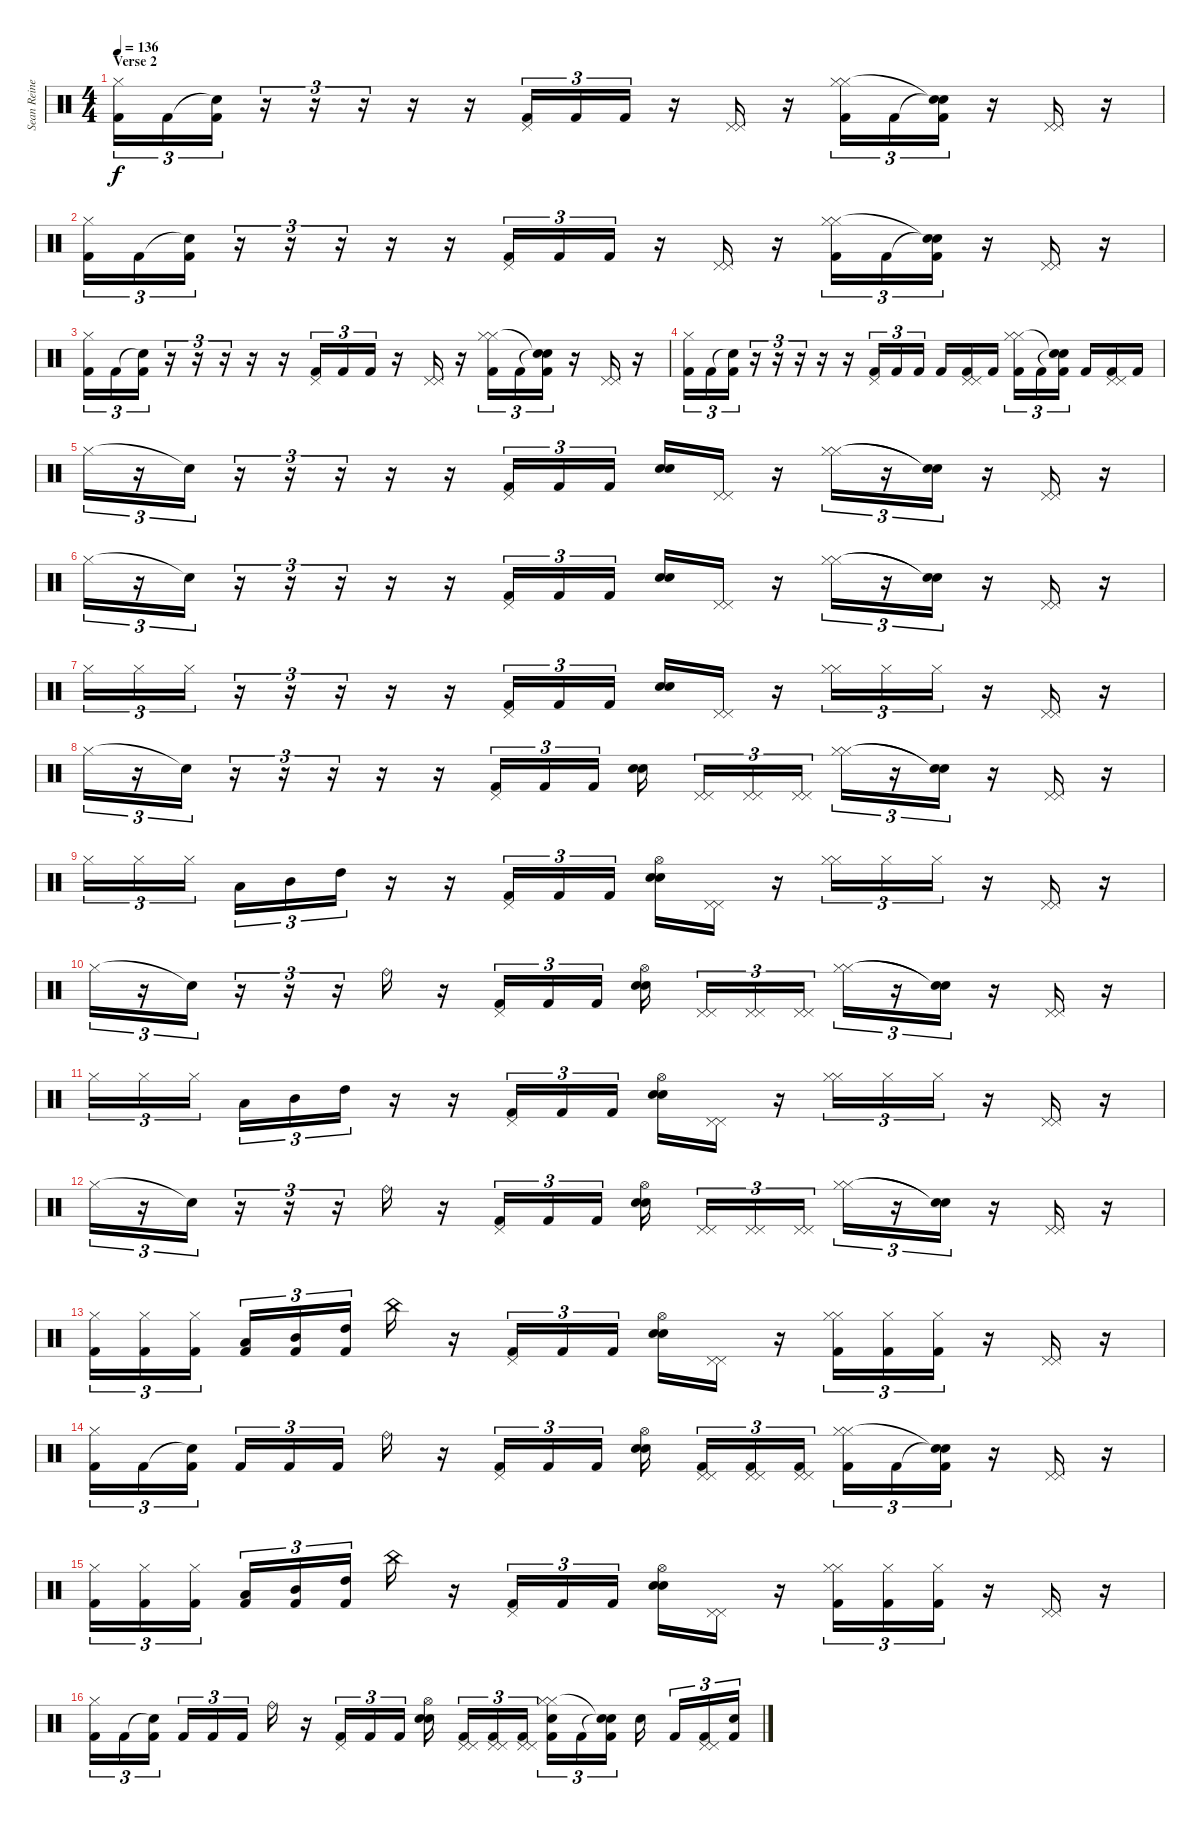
\track ("Sean Reinert" "Sean Reine") {instrument percussion}
\staff {score}
\articulation defaults
\ts (4 4)
\section ("" "Verse 2")
\tempo 136
\clef neutral
\ks c
("Hi-Hat (closed)" "Kick (hit) 2").16{tu (3 2) dy f} "Kick (hit) 2".16{tu (3 2)} ("Snare (hit)"{t} "Kick (hit) 2").16{tu (3 2)} r.16{tu (3 2)} r.16{tu (3 2)} r.16{tu (3 2)} r.16 r.16 ("Pedal Hi-Hat (hit)" "Kick (hit) 2").16{tu (3 2)} "Kick (hit) 2".16{tu (3 2)} "Kick (hit) 2".16{tu (3 2)} r.16 ("Pedal Hi-Hat (hit)" "Pedal Hi-Hat (hit)").16 r.16 ("Hi-Hat (closed)" "Hi-Hat (closed)" "Kick (hit) 2").16{tu (3 2)} "Kick (hit) 2".16{tu (3 2)} ("Snare (hit)"{t} "Snare (hit)"{t} "Kick (hit) 2").16{tu (3 2)} r.16 ("Pedal Hi-Hat (hit)" "Pedal Hi-Hat (hit)").16 r.16 |
("Hi-Hat (closed)" "Kick (hit) 2").16{tu (3 2)} "Kick (hit) 2".16{tu (3 2)} ("Snare (hit)"{t} "Kick (hit) 2").16{tu (3 2)} r.16{tu (3 2)} r.16{tu (3 2)} r.16{tu (3 2)} r.16 r.16 ("Pedal Hi-Hat (hit)" "Kick (hit) 2").16{tu (3 2)} "Kick (hit) 2".16{tu (3 2)} "Kick (hit) 2".16{tu (3 2)} r.16 ("Pedal Hi-Hat (hit)" "Pedal Hi-Hat (hit)").16 r.16 ("Hi-Hat (closed)" "Hi-Hat (closed)" "Kick (hit) 2").16{tu (3 2)} "Kick (hit) 2".16{tu (3 2)} ("Snare (hit)"{t} "Snare (hit)"{t} "Kick (hit) 2").16{tu (3 2)} r.16 ("Pedal Hi-Hat (hit)" "Pedal Hi-Hat (hit)").16 r.16 |
("Hi-Hat (closed)" "Kick (hit) 2").16{tu (3 2)} "Kick (hit) 2".16{tu (3 2)} ("Snare (hit)"{t} "Kick (hit) 2").16{tu (3 2)} r.16{tu (3 2)} r.16{tu (3 2)} r.16{tu (3 2)} r.16 r.16 ("Pedal Hi-Hat (hit)" "Kick (hit) 2").16{tu (3 2)} "Kick (hit) 2".16{tu (3 2)} "Kick (hit) 2".16{tu (3 2)} r.16 ("Pedal Hi-Hat (hit)" "Pedal Hi-Hat (hit)").16 r.16 ("Hi-Hat (closed)" "Hi-Hat (closed)" "Kick (hit) 2").16{tu (3 2)} "Kick (hit) 2".16{tu (3 2)} ("Snare (hit)"{t} "Snare (hit)"{t} "Kick (hit) 2").16{tu (3 2)} r.16 ("Pedal Hi-Hat (hit)" "Pedal Hi-Hat (hit)").16 r.16 |
("Hi-Hat (closed)" "Kick (hit) 2").16{tu (3 2)} "Kick (hit) 2".16{tu (3 2)} ("Snare (hit)"{t} "Kick (hit) 2").16{tu (3 2)} r.16{tu (3 2)} r.16{tu (3 2)} r.16{tu (3 2)} r.16 r.16 ("Pedal Hi-Hat (hit)" "Kick (hit) 2").16{tu (3 2)} "Kick (hit) 2".16{tu (3 2)} "Kick (hit) 2".16{tu (3 2)} "Kick (hit) 2".16 ("Pedal Hi-Hat (hit)" "Pedal Hi-Hat (hit)" "Kick (hit) 2").16 "Kick (hit) 2".16 ("Hi-Hat (closed)" "Hi-Hat (closed)" "Kick (hit) 2").16{tu (3 2)} "Kick (hit) 2".16{tu (3 2)} ("Snare (hit)"{t} "Snare (hit)"{t} "Kick (hit) 2").16{tu (3 2)} "Kick (hit) 2".16 ("Pedal Hi-Hat (hit)" "Pedal Hi-Hat (hit)" "Kick (hit) 2").16 "Kick (hit) 2".16 |
"Hi-Hat (closed)".16{tu (3 2)} r.16{tu (3 2)} "Snare (hit)"{t}.16{tu (3 2)} r.16{tu (3 2)} r.16{tu (3 2)} r.16{tu (3 2)} r.16 r.16 ("Pedal Hi-Hat (hit)" "Kick (hit) 2").16{tu (3 2)} "Kick (hit) 2".16{tu (3 2)} "Kick (hit) 2".16{tu (3 2)} ("Snare (hit) 2" "Electric Snare (hit)").16 ("Pedal Hi-Hat (hit)" "Pedal Hi-Hat (hit)").16 r.16 ("Hi-Hat (closed)" "Hi-Hat (closed)").16{tu (3 2)} r.16{tu (3 2)} ("Snare (hit)"{t} "Snare (hit)"{t}).16{tu (3 2)} r.16 ("Pedal Hi-Hat (hit)" "Pedal Hi-Hat (hit)").16 r.16 |
"Hi-Hat (closed)".16{tu (3 2)} r.16{tu (3 2)} "Snare (hit)"{t}.16{tu (3 2)} r.16{tu (3 2)} r.16{tu (3 2)} r.16{tu (3 2)} r.16 r.16 ("Pedal Hi-Hat (hit)" "Kick (hit) 2").16{tu (3 2)} "Kick (hit) 2".16{tu (3 2)} "Kick (hit) 2".16{tu (3 2)} ("Electric Snare (hit)" "Snare (hit) 2").16 ("Pedal Hi-Hat (hit)" "Pedal Hi-Hat (hit)").16 r.16 ("Hi-Hat (closed)" "Hi-Hat (closed)").16{tu (3 2)} r.16{tu (3 2)} ("Snare (hit)"{t} "Snare (hit)"{t}).16{tu (3 2)} r.16 ("Pedal Hi-Hat (hit)" "Pedal Hi-Hat (hit)").16 r.16 |
"Hi-Hat (closed)".16{tu (3 2)} "Hi-Hat (closed)".16{tu (3 2)} "Hi-Hat (closed)".16{tu (3 2)} r.16{tu (3 2)} r.16{tu (3 2)} r.16{tu (3 2)} r.16 r.16 ("Pedal Hi-Hat (hit)" "Kick (hit) 2").16{tu (3 2)} "Kick (hit) 2".16{tu (3 2)} "Kick (hit) 2".16{tu (3 2)} ("Electric Snare (hit)" "Snare (hit) 2").16 ("Pedal Hi-Hat (hit)" "Pedal Hi-Hat (hit)").16 r.16 ("Hi-Hat (closed)" "Hi-Hat (closed)").16{tu (3 2)} "Hi-Hat (closed)".16{tu (3 2)} "Hi-Hat (closed)".16{tu (3 2)} r.16 ("Pedal Hi-Hat (hit)" "Pedal Hi-Hat (hit)").16 r.16 |
"Hi-Hat (closed)".16{tu (3 2)} r.16{tu (3 2)} "Snare (hit)"{t}.16{tu (3 2)} r.16{tu (3 2)} r.16{tu (3 2)} r.16{tu (3 2)} r.16 r.16 ("Pedal Hi-Hat (hit)" "Kick (hit) 2").16{tu (3 2)} "Kick (hit) 2".16{tu (3 2)} "Kick (hit) 2".16{tu (3 2)} ("Electric Snare (hit)" "Snare (hit) 2").16 ("Pedal Hi-Hat (hit)" "Pedal Hi-Hat (hit)").16{tu (3 2)} ("Pedal Hi-Hat (hit)" "Pedal Hi-Hat (hit)").16{tu (3 2)} ("Pedal Hi-Hat (hit)" "Pedal Hi-Hat (hit)").16{tu (3 2)} ("Hi-Hat (closed)" "Hi-Hat (closed)").16{tu (3 2)} r.16{tu (3 2)} ("Snare (hit)"{t} "Snare (hit)"{t}).16{tu (3 2)} r.16 ("Pedal Hi-Hat (hit)" "Pedal Hi-Hat (hit)").16 r.16 |
"Hi-Hat (closed)".16{tu (3 2)} "Hi-Hat (closed)".16{tu (3 2)} "Hi-Hat (closed)".16{tu (3 2)} "Low Tom (hit)".16{tu (3 2)} "Mid Tom (hit)".16{tu (3 2)} "High Tom (hit)".16{tu (3 2)} r.16 r.16 ("Pedal Hi-Hat (hit)" "Kick (hit) 2").16{tu (3 2)} "Kick (hit) 2".16{tu (3 2)} "Kick (hit) 2".16{tu (3 2)} ("Hi-Hat (open)" "Electric Snare (hit)" "Snare (hit) 2").16 ("Pedal Hi-Hat (hit)" "Pedal Hi-Hat (hit)").16 r.16 ("Hi-Hat (closed)" "Hi-Hat (closed)").16{tu (3 2)} "Hi-Hat (closed)".16{tu (3 2)} "Hi-Hat (closed)".16{tu (3 2)} r.16 ("Pedal Hi-Hat (hit)" "Pedal Hi-Hat (hit)").16 r.16 |
"Hi-Hat (closed)".16{tu (3 2)} r.16{tu (3 2)} "Snare (hit)"{t}.16{tu (3 2)} r.16{tu (3 2)} r.16{tu (3 2)} r.16{tu (3 2)} "Ride (bell)".16 r.16 ("Pedal Hi-Hat (hit)" "Kick (hit) 2").16{tu (3 2)} "Kick (hit) 2".16{tu (3 2)} "Kick (hit) 2".16{tu (3 2)} ("Hi-Hat (open)" "Electric Snare (hit)" "Snare (hit) 2").16 ("Pedal Hi-Hat (hit)" "Pedal Hi-Hat (hit)").16{tu (3 2)} ("Pedal Hi-Hat (hit)" "Pedal Hi-Hat (hit)").16{tu (3 2)} ("Pedal Hi-Hat (hit)" "Pedal Hi-Hat (hit)").16{tu (3 2)} ("Hi-Hat (closed)" "Hi-Hat (closed)").16{tu (3 2)} r.16{tu (3 2)} ("Snare (hit)"{t} "Snare (hit)"{t}).16{tu (3 2)} r.16 ("Pedal Hi-Hat (hit)" "Pedal Hi-Hat (hit)").16 r.16 |
"Hi-Hat (closed)".16{tu (3 2)} "Hi-Hat (closed)".16{tu (3 2)} "Hi-Hat (closed)".16{tu (3 2)} "Low Tom (hit)".16{tu (3 2)} "Mid Tom (hit)".16{tu (3 2)} "High Tom (hit)".16{tu (3 2)} r.16 r.16 ("Pedal Hi-Hat (hit)" "Kick (hit) 2").16{tu (3 2)} "Kick (hit) 2".16{tu (3 2)} "Kick (hit) 2".16{tu (3 2)} ("Hi-Hat (open)" "Electric Snare (hit)" "Snare (hit) 2").16 ("Pedal Hi-Hat (hit)" "Pedal Hi-Hat (hit)").16 r.16 ("Hi-Hat (closed)" "Hi-Hat (closed)").16{tu (3 2)} "Hi-Hat (closed)".16{tu (3 2)} "Hi-Hat (closed)".16{tu (3 2)} r.16 ("Pedal Hi-Hat (hit)" "Pedal Hi-Hat (hit)").16 r.16 |
"Hi-Hat (closed)".16{tu (3 2)} r.16{tu (3 2)} "Snare (hit)"{t}.16{tu (3 2)} r.16{tu (3 2)} r.16{tu (3 2)} r.16{tu (3 2)} "Ride (bell)".16 r.16 ("Pedal Hi-Hat (hit)" "Kick (hit) 2").16{tu (3 2)} "Kick (hit) 2".16{tu (3 2)} "Kick (hit) 2".16{tu (3 2)} ("Hi-Hat (open)" "Electric Snare (hit)" "Snare (hit) 2").16 ("Pedal Hi-Hat (hit)" "Pedal Hi-Hat (hit)").16{tu (3 2)} ("Pedal Hi-Hat (hit)" "Pedal Hi-Hat (hit)").16{tu (3 2)} ("Pedal Hi-Hat (hit)" "Pedal Hi-Hat (hit)").16{tu (3 2)} ("Hi-Hat (closed)" "Hi-Hat (closed)").16{tu (3 2)} r.16{tu (3 2)} ("Snare (hit)"{t} "Snare (hit)"{t}).16{tu (3 2)} r.16 ("Pedal Hi-Hat (hit)" "Pedal Hi-Hat (hit)").16 r.16 |
("Hi-Hat (closed)" "Kick (hit) 2").16{tu (3 2)} ("Hi-Hat (closed)" "Kick (hit) 2").16{tu (3 2)} ("Hi-Hat (closed)" "Kick (hit) 2").16{tu (3 2)} ("Kick (hit) 2" "Low Tom (hit)").16{tu (3 2)} ("Kick (hit) 2" "Mid Tom (hit)").16{tu (3 2)} ("Kick (hit) 2" "High Tom (hit)").16{tu (3 2)} "China (hit)".16 r.16 ("Pedal Hi-Hat (hit)" "Kick (hit) 2").16{tu (3 2)} "Kick (hit) 2".16{tu (3 2)} "Kick (hit) 2".16{tu (3 2)} ("Hi-Hat (open)" "Electric Snare (hit)" "Snare (hit) 2").16 ("Pedal Hi-Hat (hit)" "Pedal Hi-Hat (hit)").16 r.16 ("Hi-Hat (closed)" "Hi-Hat (closed)" "Kick (hit) 2").16{tu (3 2)} ("Hi-Hat (closed)" "Kick (hit) 2").16{tu (3 2)} ("Hi-Hat (closed)" "Kick (hit) 2").16{tu (3 2)} r.16 ("Pedal Hi-Hat (hit)" "Pedal Hi-Hat (hit)").16 r.16 |
("Hi-Hat (closed)" "Kick (hit) 2").16{tu (3 2)} "Kick (hit) 2".16{tu (3 2)} ("Snare (hit)"{t} "Kick (hit) 2").16{tu (3 2)} "Kick (hit) 2".16{tu (3 2)} "Kick (hit) 2".16{tu (3 2)} "Kick (hit) 2".16{tu (3 2)} "Ride (bell)".16 r.16 ("Pedal Hi-Hat (hit)" "Kick (hit) 2").16{tu (3 2)} "Kick (hit) 2".16{tu (3 2)} "Kick (hit) 2".16{tu (3 2)} ("Hi-Hat (open)" "Electric Snare (hit)" "Snare (hit) 2").16 ("Pedal Hi-Hat (hit)" "Pedal Hi-Hat (hit)" "Kick (hit) 2").16{tu (3 2)} ("Pedal Hi-Hat (hit)" "Pedal Hi-Hat (hit)" "Kick (hit) 2").16{tu (3 2)} ("Pedal Hi-Hat (hit)" "Pedal Hi-Hat (hit)" "Kick (hit) 2").16{tu (3 2)} ("Hi-Hat (closed)" "Hi-Hat (closed)" "Kick (hit) 2").16{tu (3 2)} "Kick (hit) 2".16{tu (3 2)} ("Snare (hit)"{t} "Snare (hit)"{t} "Kick (hit) 2").16{tu (3 2)} r.16 ("Pedal Hi-Hat (hit)" "Pedal Hi-Hat (hit)").16 r.16 |
("Hi-Hat (closed)" "Kick (hit) 2").16{tu (3 2)} ("Hi-Hat (closed)" "Kick (hit) 2").16{tu (3 2)} ("Hi-Hat (closed)" "Kick (hit) 2").16{tu (3 2)} ("Kick (hit) 2" "Low Tom (hit)").16{tu (3 2)} ("Kick (hit) 2" "Mid Tom (hit)").16{tu (3 2)} ("Kick (hit) 2" "High Tom (hit)").16{tu (3 2)} "China (hit)".16 r.16 ("Pedal Hi-Hat (hit)" "Kick (hit) 2").16{tu (3 2)} "Kick (hit) 2".16{tu (3 2)} "Kick (hit) 2".16{tu (3 2)} ("Hi-Hat (open)" "Electric Snare (hit)" "Snare (hit) 2").16 ("Pedal Hi-Hat (hit)" "Pedal Hi-Hat (hit)").16 r.16 ("Hi-Hat (closed)" "Hi-Hat (closed)" "Kick (hit) 2").16{tu (3 2)} ("Hi-Hat (closed)" "Kick (hit) 2").16{tu (3 2)} ("Hi-Hat (closed)" "Kick (hit) 2").16{tu (3 2)} r.16 ("Pedal Hi-Hat (hit)" "Pedal Hi-Hat (hit)").16 r.16 |
("Hi-Hat (closed)" "Kick (hit) 2").16{tu (3 2)} "Kick (hit) 2".16{tu (3 2)} ("Snare (hit)"{t} "Kick (hit) 2").16{tu (3 2)} "Kick (hit) 2".16{tu (3 2)} "Kick (hit) 2".16{tu (3 2)} "Kick (hit) 2".16{tu (3 2)} "Ride (bell)".16 r.16 ("Pedal Hi-Hat (hit)" "Kick (hit) 2").16{tu (3 2)} "Kick (hit) 2".16{tu (3 2)} "Kick (hit) 2".16{tu (3 2)} ("Hi-Hat (open)" "Electric Snare (hit)" "Snare (hit) 2").16 ("Pedal Hi-Hat (hit)" "Pedal Hi-Hat (hit)" "Kick (hit) 2").16{tu (3 2)} ("Pedal Hi-Hat (hit)" "Pedal Hi-Hat (hit)" "Kick (hit) 2").16{tu (3 2)} ("Pedal Hi-Hat (hit)" "Pedal Hi-Hat (hit)" "Kick (hit) 2").16{tu (3 2)} ("Hi-Hat (closed)" "Hi-Hat (closed)" "Snare (hit) 2" "Kick (hit) 2").16{tu (3 2)} "Kick (hit) 2".16{tu (3 2)} ("Snare (hit)"{t} "Snare (hit)"{t} "Kick (hit) 2").16{tu (3 2)} "Snare (hit) 2".16 "Kick (hit) 2".16{tu (3 2)} ("Pedal Hi-Hat (hit)" "Pedal Hi-Hat (hit)" "Kick (hit) 2").16{tu (3 2)} ("Snare (hit) 2" "Kick (hit) 2").16{tu (3 2)}
